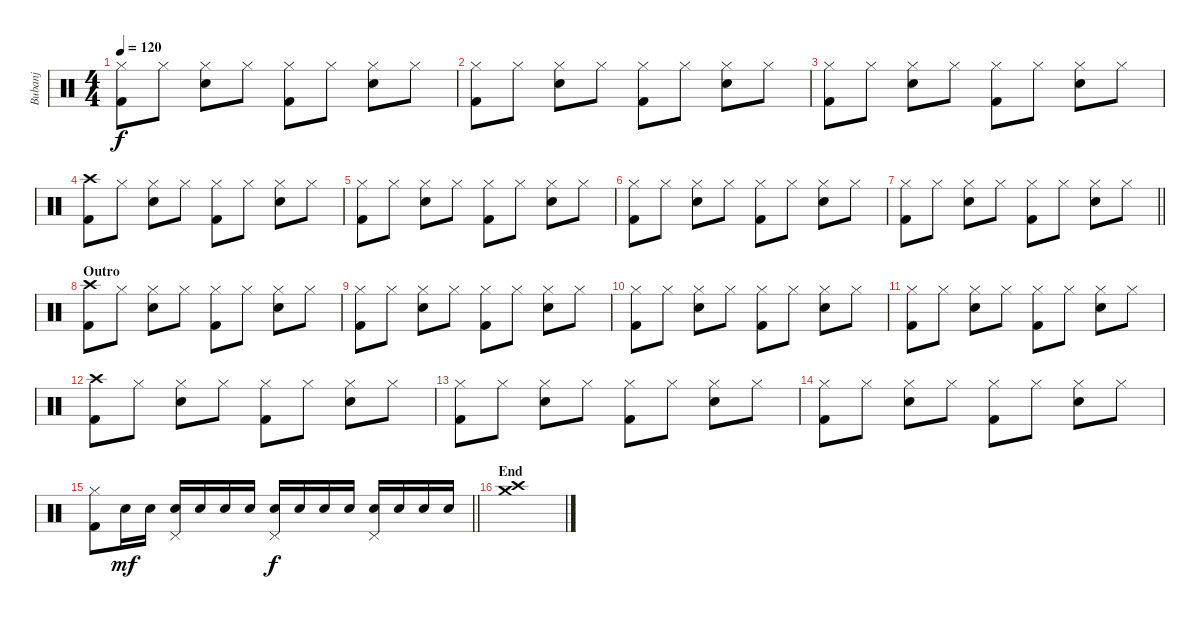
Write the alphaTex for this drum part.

\track ("Bubanj" "Bubanj") {instrument percussion}
\staff {score}
\articulation defaults
\ts (4 4)
\tempo 120
\clef neutral
\ks c
("Hi-Hat (closed)" "Kick (hit) 2").8{dy f} "Hi-Hat (closed)".8 ("Hi-Hat (closed)" "Electric Snare (hit)").8 "Hi-Hat (closed)".8 ("Hi-Hat (closed)" "Kick (hit) 2").8 "Hi-Hat (closed)".8 ("Hi-Hat (closed)" "Electric Snare (hit)").8 "Hi-Hat (closed)".8 |
("Hi-Hat (closed)" "Kick (hit) 2").8 "Hi-Hat (closed)".8 ("Hi-Hat (closed)" "Electric Snare (hit)").8 "Hi-Hat (closed)".8 ("Hi-Hat (closed)" "Kick (hit) 2").8 "Hi-Hat (closed)".8 ("Hi-Hat (closed)" "Electric Snare (hit)").8 "Hi-Hat (closed)".8 |
("Hi-Hat (closed)" "Kick (hit) 2").8 "Hi-Hat (closed)".8 ("Hi-Hat (closed)" "Electric Snare (hit)").8 "Hi-Hat (closed)".8 ("Hi-Hat (closed)" "Kick (hit) 2").8 "Hi-Hat (closed)".8 ("Hi-Hat (closed)" "Electric Snare (hit)").8 "Hi-Hat (closed)".8 |
("Crash high (hit)" "Kick (hit) 2").8 "Hi-Hat (closed)".8 ("Hi-Hat (closed)" "Electric Snare (hit)").8 "Hi-Hat (closed)".8 ("Hi-Hat (closed)" "Kick (hit) 2").8 "Hi-Hat (closed)".8 ("Hi-Hat (closed)" "Electric Snare (hit)").8 "Hi-Hat (closed)".8 |
("Hi-Hat (closed)" "Kick (hit) 2").8 "Hi-Hat (closed)".8 ("Hi-Hat (closed)" "Electric Snare (hit)").8 "Hi-Hat (closed)".8 ("Hi-Hat (closed)" "Kick (hit) 2").8 "Hi-Hat (closed)".8 ("Hi-Hat (closed)" "Electric Snare (hit)").8 "Hi-Hat (closed)".8 |
("Hi-Hat (closed)" "Kick (hit) 2").8 "Hi-Hat (closed)".8 ("Hi-Hat (closed)" "Electric Snare (hit)").8 "Hi-Hat (closed)".8 ("Hi-Hat (closed)" "Kick (hit) 2").8 "Hi-Hat (closed)".8 ("Hi-Hat (closed)" "Electric Snare (hit)").8 "Hi-Hat (closed)".8 |
\barLineRight lightlight
("Hi-Hat (closed)" "Kick (hit) 2").8 "Hi-Hat (closed)".8 ("Hi-Hat (closed)" "Electric Snare (hit)").8 "Hi-Hat (closed)".8 ("Hi-Hat (closed)" "Kick (hit) 2").8 "Hi-Hat (closed)".8 ("Hi-Hat (closed)" "Electric Snare (hit)").8 "Hi-Hat (closed)".8 |
\section ("" "Outro")
("Crash high (hit)" "Kick (hit) 2").8 "Hi-Hat (closed)".8 ("Hi-Hat (closed)" "Electric Snare (hit)").8 "Hi-Hat (closed)".8 ("Hi-Hat (closed)" "Kick (hit) 2").8 "Hi-Hat (closed)".8 ("Hi-Hat (closed)" "Electric Snare (hit)").8 "Hi-Hat (closed)".8 |
("Hi-Hat (closed)" "Kick (hit) 2").8 "Hi-Hat (closed)".8 ("Hi-Hat (closed)" "Electric Snare (hit)").8 "Hi-Hat (closed)".8 ("Hi-Hat (closed)" "Kick (hit) 2").8 "Hi-Hat (closed)".8 ("Hi-Hat (closed)" "Electric Snare (hit)").8 "Hi-Hat (closed)".8 |
("Hi-Hat (closed)" "Kick (hit) 2").8 "Hi-Hat (closed)".8 ("Hi-Hat (closed)" "Electric Snare (hit)").8 "Hi-Hat (closed)".8 ("Hi-Hat (closed)" "Kick (hit) 2").8 "Hi-Hat (closed)".8 ("Hi-Hat (closed)" "Electric Snare (hit)").8 "Hi-Hat (closed)".8 |
("Hi-Hat (closed)" "Kick (hit) 2").8 "Hi-Hat (closed)".8 ("Hi-Hat (closed)" "Electric Snare (hit)").8 "Hi-Hat (closed)".8 ("Hi-Hat (closed)" "Kick (hit) 2").8 "Hi-Hat (closed)".8 ("Hi-Hat (closed)" "Electric Snare (hit)").8 "Hi-Hat (closed)".8 |
("Crash high (hit)" "Kick (hit) 2").8 "Hi-Hat (closed)".8 ("Hi-Hat (closed)" "Electric Snare (hit)").8 "Hi-Hat (closed)".8 ("Hi-Hat (closed)" "Kick (hit) 2").8 "Hi-Hat (closed)".8 ("Hi-Hat (closed)" "Electric Snare (hit)").8 "Hi-Hat (closed)".8 |
("Hi-Hat (closed)" "Kick (hit) 2").8 "Hi-Hat (closed)".8 ("Hi-Hat (closed)" "Electric Snare (hit)").8 "Hi-Hat (closed)".8 ("Hi-Hat (closed)" "Kick (hit) 2").8 "Hi-Hat (closed)".8 ("Hi-Hat (closed)" "Electric Snare (hit)").8 "Hi-Hat (closed)".8 |
("Hi-Hat (closed)" "Kick (hit) 2").8 "Hi-Hat (closed)".8 ("Hi-Hat (closed)" "Electric Snare (hit)").8 "Hi-Hat (closed)".8 ("Hi-Hat (closed)" "Kick (hit) 2").8 "Hi-Hat (closed)".8 ("Hi-Hat (closed)" "Electric Snare (hit)").8 "Hi-Hat (closed)".8 |
\barLineRight lightlight
("Hi-Hat (closed)" "Kick (hit) 2").8 "Electric Snare (hit)".16{dy mf} "Electric Snare (hit)".16 ("Electric Snare (hit)" "Pedal Hi-Hat (hit)").16 "Electric Snare (hit)".16 "Electric Snare (hit)".16 "Electric Snare (hit)".16 ("Electric Snare (hit)" "Pedal Hi-Hat (hit)").16{dy f} "Electric Snare (hit)".16 "Electric Snare (hit)".16 "Electric Snare (hit)".16 ("Electric Snare (hit)" "Pedal Hi-Hat (hit)").16 "Electric Snare (hit)".16 "Electric Snare (hit)".16 "Electric Snare (hit)".16 |
\section ("" "End")
("Crash high (hit)" "Crash medium (hit)").1
